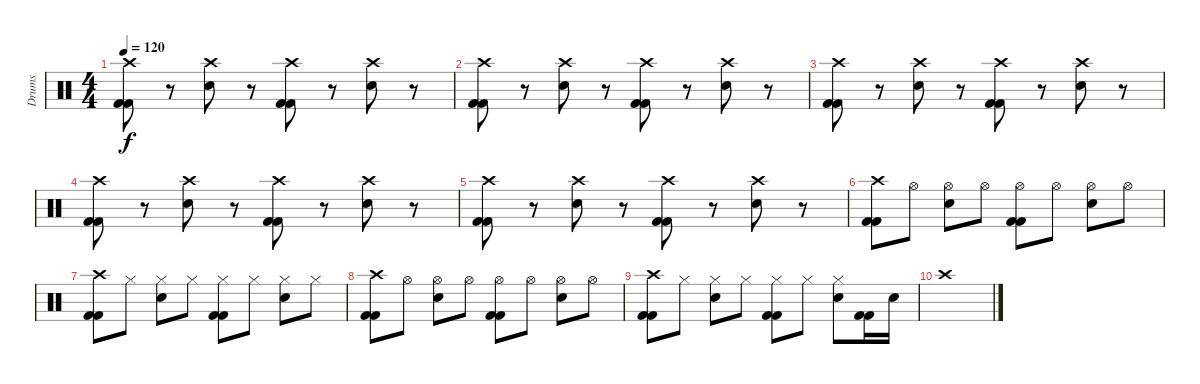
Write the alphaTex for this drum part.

\track ("Drums" "Drums") {instrument percussion}
\staff {score}
\articulation defaults
\ts (4 4)
\tempo 120
\clef neutral
\ks c
("Crash high (hit)" "Kick (hit) 2" "Kick (hit) 2").8{dy f} r.8 ("Crash high (hit)" "Electric Snare (hit)").8 r.8 ("Crash high (hit)" "Kick (hit) 2" "Kick (hit) 2").8 r.8 ("Crash high (hit)" "Electric Snare (hit)").8 r.8 |
("Crash high (hit)" "Kick (hit) 2" "Kick (hit) 2").8 r.8 ("Crash high (hit)" "Electric Snare (hit)").8 r.8 ("Crash high (hit)" "Kick (hit) 2" "Kick (hit) 2").8 r.8 ("Crash high (hit)" "Electric Snare (hit)").8 r.8 |
("Crash high (hit)" "Kick (hit) 2" "Kick (hit) 2").8 r.8 ("Crash high (hit)" "Electric Snare (hit)").8 r.8 ("Crash high (hit)" "Kick (hit) 2" "Kick (hit) 2").8 r.8 ("Crash high (hit)" "Electric Snare (hit)").8 r.8 |
("Crash high (hit)" "Kick (hit) 2" "Kick (hit) 2").8 r.8 ("Crash high (hit)" "Electric Snare (hit)").8 r.8 ("Crash high (hit)" "Kick (hit) 2" "Kick (hit) 2").8 r.8 ("Crash high (hit)" "Electric Snare (hit)").8 r.8 |
("Crash high (hit)" "Kick (hit) 2" "Kick (hit) 2").8 r.8 ("Crash high (hit)" "Electric Snare (hit)").8 r.8 ("Crash high (hit)" "Kick (hit) 2" "Kick (hit) 2").8 r.8 ("Crash high (hit)" "Electric Snare (hit)").8 r.8 |
("Crash high (hit)" "Kick (hit) 2" "Kick (hit) 2").8 "Hi-Hat (open)".8 ("Hi-Hat (open)" "Electric Snare (hit)").8 "Hi-Hat (open)".8 ("Hi-Hat (open)" "Kick (hit) 2" "Kick (hit) 2").8 "Hi-Hat (open)".8 ("Hi-Hat (open)" "Electric Snare (hit)").8 "Hi-Hat (open)".8 |
("Crash high (hit)" "Kick (hit) 2" "Kick (hit) 2").8 "Hi-Hat (closed)".8 ("Hi-Hat (closed)" "Electric Snare (hit)").8 "Hi-Hat (closed)".8 ("Hi-Hat (closed)" "Kick (hit) 2" "Kick (hit) 2").8 "Hi-Hat (closed)".8 ("Hi-Hat (closed)" "Electric Snare (hit)").8 "Hi-Hat (closed)".8 |
("Crash high (hit)" "Kick (hit) 2" "Kick (hit) 2").8 "Hi-Hat (open)".8 ("Hi-Hat (open)" "Electric Snare (hit)").8 "Hi-Hat (open)".8 ("Hi-Hat (open)" "Kick (hit) 2" "Kick (hit) 2").8 "Hi-Hat (open)".8 ("Hi-Hat (open)" "Electric Snare (hit)").8 "Hi-Hat (open)".8 |
("Crash high (hit)" "Kick (hit) 2" "Kick (hit) 2").8 "Hi-Hat (closed)".8 ("Hi-Hat (closed)" "Electric Snare (hit)").8 "Hi-Hat (closed)".8 ("Hi-Hat (closed)" "Kick (hit) 2" "Kick (hit) 2").8 "Hi-Hat (closed)".8 ("Hi-Hat (closed)" "Electric Snare (hit)").8 ("Kick (hit) 2" "Kick (hit) 2").16 "Electric Snare (hit)".16 |
"Crash high (hit)".1
